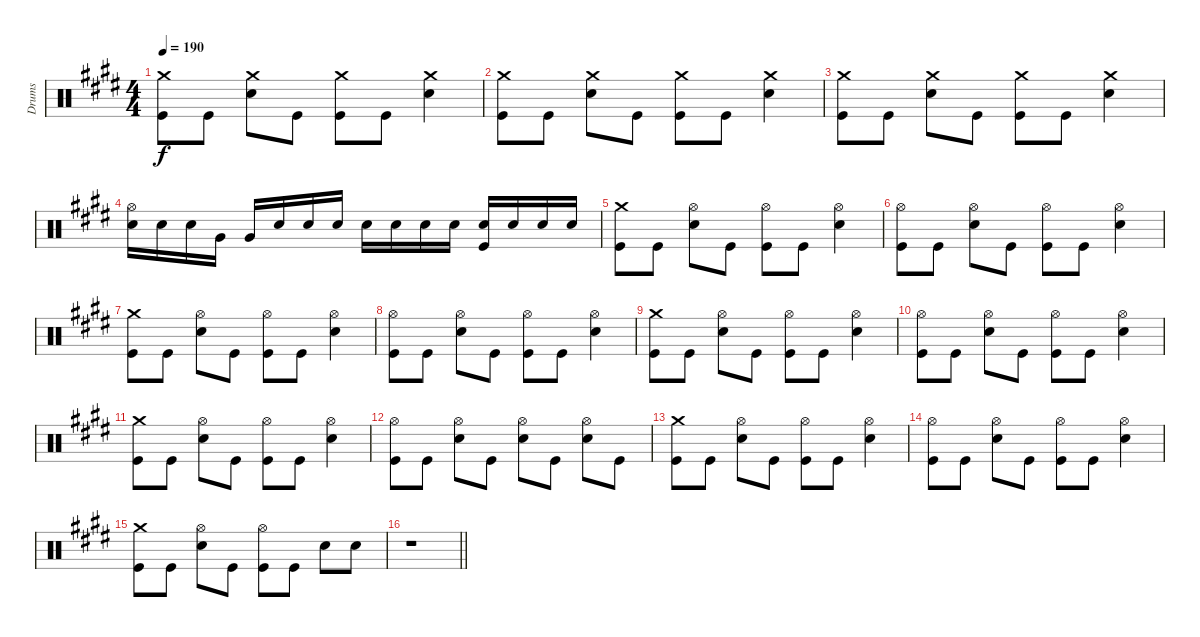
\track ("Drums" "Drums") {instrument percussion}
\staff {score}
\articulation defaults
\ts (4 4)
\tempo 190
\clef neutral
\ks e
("Kick (hit)" "Crash medium (hit)").8{dy f} "Kick (hit)".8 ("Snare (hit) 2" "Crash medium (hit)").8 "Kick (hit)".8 ("Kick (hit)" "Crash medium (hit)").8 "Kick (hit)".8 ("Snare (hit) 2" "Crash medium (hit)").4 |
("Kick (hit)" "Crash medium (hit)").8 "Kick (hit)".8 ("Snare (hit) 2" "Crash medium (hit)").8 "Kick (hit)".8 ("Kick (hit)" "Crash medium (hit)").8 "Kick (hit)".8 ("Snare (hit) 2" "Crash medium (hit)").4 |
("Kick (hit)" "Crash medium (hit)").8 "Kick (hit)".8 ("Snare (hit) 2" "Crash medium (hit)").8 "Kick (hit)".8 ("Kick (hit)" "Crash medium (hit)").8 "Kick (hit)".8 ("Snare (hit) 2" "Crash medium (hit)").4 |
("Snare (hit) 2" "Hi-Hat (open)").16 "Snare (hit) 2".16 "Snare (hit) 2".16 "Very Low Tom (hit)".16 "Very Low Tom (hit)".16 "Snare (hit) 2".16 "Snare (hit) 2".16 "Snare (hit) 2".16 "Snare (hit) 2".16 "Snare (hit) 2".16 "Snare (hit) 2".16 "Snare (hit) 2".16 ("Snare (hit) 2" "Kick (hit)").16 "Snare (hit) 2".16 "Snare (hit) 2".16 "Snare (hit) 2".16 |
("Kick (hit)" "Crash medium (hit)").8 "Kick (hit)".8 ("Snare (hit) 2" "Hi-Hat (open)").8 "Kick (hit)".8 ("Kick (hit)" "Hi-Hat (open)").8 "Kick (hit)".8 ("Snare (hit) 2" "Hi-Hat (open)").4 |
("Kick (hit)" "Hi-Hat (open)").8 "Kick (hit)".8 ("Snare (hit) 2" "Hi-Hat (open)").8 "Kick (hit)".8 ("Kick (hit)" "Hi-Hat (open)").8 "Kick (hit)".8 ("Snare (hit) 2" "Hi-Hat (open)").4 |
("Kick (hit)" "Crash medium (hit)").8 "Kick (hit)".8 ("Snare (hit) 2" "Hi-Hat (open)").8 "Kick (hit)".8 ("Kick (hit)" "Hi-Hat (open)").8 "Kick (hit)".8 ("Snare (hit) 2" "Hi-Hat (open)").4 |
("Kick (hit)" "Hi-Hat (open)").8 "Kick (hit)".8 ("Snare (hit) 2" "Hi-Hat (open)").8 "Kick (hit)".8 ("Kick (hit)" "Hi-Hat (open)").8 "Kick (hit)".8 ("Snare (hit) 2" "Hi-Hat (open)").4 |
("Kick (hit)" "Crash medium (hit)").8 "Kick (hit)".8 ("Snare (hit) 2" "Hi-Hat (open)").8 "Kick (hit)".8 ("Kick (hit)" "Hi-Hat (open)").8 "Kick (hit)".8 ("Snare (hit) 2" "Hi-Hat (open)").4 |
("Kick (hit)" "Hi-Hat (open)").8 "Kick (hit)".8 ("Snare (hit) 2" "Hi-Hat (open)").8 "Kick (hit)".8 ("Kick (hit)" "Hi-Hat (open)").8 "Kick (hit)".8 ("Snare (hit) 2" "Hi-Hat (open)").4 |
("Kick (hit)" "Crash medium (hit)").8 "Kick (hit)".8 ("Snare (hit) 2" "Hi-Hat (open)").8 "Kick (hit)".8 ("Kick (hit)" "Hi-Hat (open)").8 "Kick (hit)".8 ("Snare (hit) 2" "Hi-Hat (open)").4 |
("Kick (hit)" "Hi-Hat (open)").8 "Kick (hit)".8 ("Snare (hit) 2" "Hi-Hat (open)").8 "Kick (hit)".8 ("Snare (hit) 2" "Hi-Hat (open)").8 "Kick (hit)".8 ("Snare (hit) 2" "Hi-Hat (open)").8 "Kick (hit)".8 |
("Kick (hit)" "Crash medium (hit)").8 "Kick (hit)".8 ("Snare (hit) 2" "Hi-Hat (open)").8 "Kick (hit)".8 ("Kick (hit)" "Hi-Hat (open)").8 "Kick (hit)".8 ("Snare (hit) 2" "Hi-Hat (open)").4 |
("Kick (hit)" "Hi-Hat (open)").8 "Kick (hit)".8 ("Snare (hit) 2" "Hi-Hat (open)").8 "Kick (hit)".8 ("Kick (hit)" "Hi-Hat (open)").8 "Kick (hit)".8 ("Snare (hit) 2" "Hi-Hat (open)").4 |
("Kick (hit)" "Crash medium (hit)").8 "Kick (hit)".8 ("Snare (hit) 2" "Hi-Hat (open)").8 "Kick (hit)".8 ("Kick (hit)" "Hi-Hat (open)").8 "Kick (hit)".8 "Snare (hit) 2".8 "Snare (hit) 2".8 |
\barLineRight lightlight
r.1
